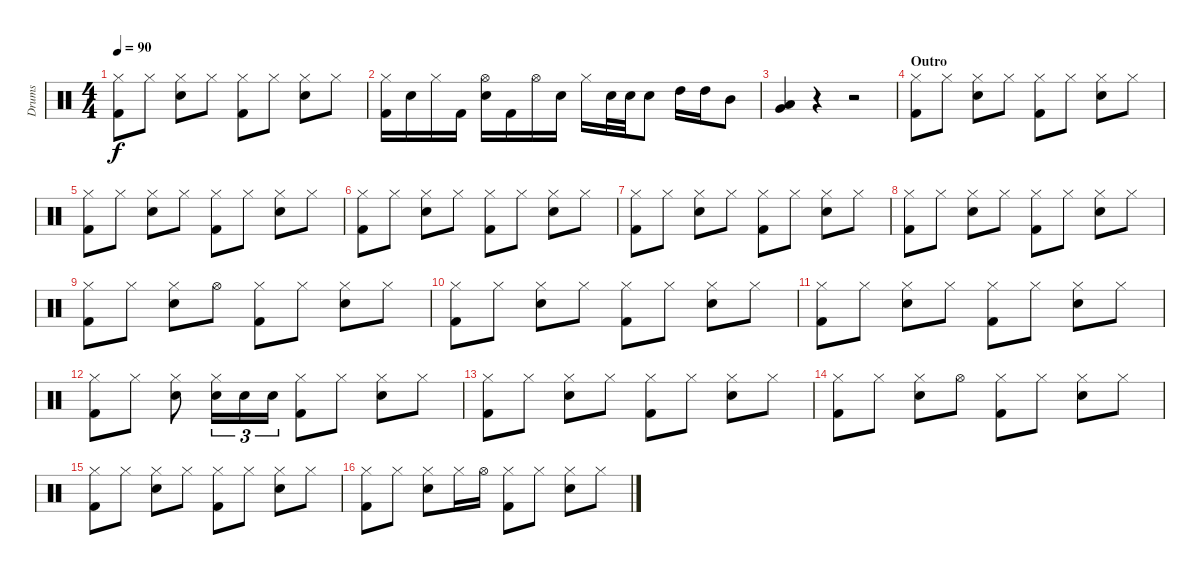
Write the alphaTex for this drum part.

\track ("Drums" "Drums") {instrument percussion}
\staff {score}
\articulation defaults
\ts (4 4)
\tempo 90
\clef neutral
\ks c
("Hi-Hat (closed)" "Kick (hit) 2").8{dy f} "Hi-Hat (closed)".8 ("Hi-Hat (closed)" "Electric Snare (hit)").8 "Hi-Hat (closed)".8 ("Hi-Hat (closed)" "Kick (hit) 2").8 "Hi-Hat (closed)".8 ("Hi-Hat (closed)" "Electric Snare (hit)").8 "Hi-Hat (closed)".8 |
("Hi-Hat (closed)" "Kick (hit) 2").16 "Electric Snare (hit)".16 "Hi-Hat (closed)".16 "Kick (hit) 2".16 ("Hi-Hat (open)" "Electric Snare (hit)").16 "Kick (hit) 2".16 "Hi-Hat (open)".16 "Electric Snare (hit)".16 "Hi-Hat (closed)".16 "Electric Snare (hit)".32 "Electric Snare (hit)".32 "Electric Snare (hit)".8 "High Tom (hit)".16 "High Tom (hit)".16 "Mid Tom (hit)".8 |
("Low Tom (hit)" "Very Low Tom (hit)").4 r.4 r.2 |
\section ("" "Outro")
("Hi-Hat (closed)" "Kick (hit) 2").8 "Hi-Hat (closed)".8 ("Hi-Hat (closed)" "Electric Snare (hit)").8 "Hi-Hat (closed)".8 ("Hi-Hat (closed)" "Kick (hit) 2").8 "Hi-Hat (closed)".8 ("Hi-Hat (closed)" "Electric Snare (hit)").8 "Hi-Hat (closed)".8 |
("Hi-Hat (closed)" "Kick (hit) 2").8 "Hi-Hat (closed)".8 ("Hi-Hat (closed)" "Electric Snare (hit)").8 "Hi-Hat (closed)".8 ("Hi-Hat (closed)" "Kick (hit) 2").8 "Hi-Hat (closed)".8 ("Hi-Hat (closed)" "Electric Snare (hit)").8 "Hi-Hat (closed)".8 |
("Hi-Hat (closed)" "Kick (hit) 2").8 "Hi-Hat (closed)".8 ("Hi-Hat (closed)" "Electric Snare (hit)").8 "Hi-Hat (closed)".8 ("Hi-Hat (closed)" "Kick (hit) 2").8 "Hi-Hat (closed)".8 ("Hi-Hat (closed)" "Electric Snare (hit)").8 "Hi-Hat (closed)".8 |
("Hi-Hat (closed)" "Kick (hit) 2").8 "Hi-Hat (closed)".8 ("Hi-Hat (closed)" "Electric Snare (hit)").8 "Hi-Hat (closed)".8 ("Hi-Hat (closed)" "Kick (hit) 2").8 "Hi-Hat (closed)".8 ("Hi-Hat (closed)" "Electric Snare (hit)").8 "Hi-Hat (closed)".8 |
("Hi-Hat (closed)" "Kick (hit) 2").8 "Hi-Hat (closed)".8 ("Hi-Hat (closed)" "Electric Snare (hit)").8 "Hi-Hat (closed)".8 ("Hi-Hat (closed)" "Kick (hit) 2").8 "Hi-Hat (closed)".8 ("Hi-Hat (closed)" "Electric Snare (hit)").8 "Hi-Hat (closed)".8 |
("Hi-Hat (closed)" "Kick (hit) 2").8 "Hi-Hat (closed)".8 ("Hi-Hat (closed)" "Electric Snare (hit)").8 "Hi-Hat (open)".8 ("Hi-Hat (closed)" "Kick (hit) 2").8 "Hi-Hat (closed)".8 ("Hi-Hat (closed)" "Electric Snare (hit)").8 "Hi-Hat (closed)".8 |
("Hi-Hat (closed)" "Kick (hit) 2").8 "Hi-Hat (closed)".8 ("Hi-Hat (closed)" "Electric Snare (hit)").8 "Hi-Hat (closed)".8 ("Hi-Hat (closed)" "Kick (hit) 2").8 "Hi-Hat (closed)".8 ("Hi-Hat (closed)" "Electric Snare (hit)").8 "Hi-Hat (closed)".8 |
("Hi-Hat (closed)" "Kick (hit) 2").8 "Hi-Hat (closed)".8 ("Hi-Hat (closed)" "Electric Snare (hit)").8 "Hi-Hat (closed)".8 ("Hi-Hat (closed)" "Kick (hit) 2").8 "Hi-Hat (closed)".8 ("Hi-Hat (closed)" "Electric Snare (hit)").8 "Hi-Hat (closed)".8 |
("Hi-Hat (closed)" "Kick (hit) 2").8 "Hi-Hat (closed)".8 ("Hi-Hat (closed)" "Electric Snare (hit)").8 ("Hi-Hat (closed)" "Electric Snare (hit)").16{tu (3 2)} "Electric Snare (hit)".16{tu (3 2)} "Electric Snare (hit)".16{tu (3 2)} ("Hi-Hat (closed)" "Kick (hit) 2").8 "Hi-Hat (closed)".8 ("Hi-Hat (closed)" "Electric Snare (hit)").8 "Hi-Hat (closed)".8 |
("Hi-Hat (closed)" "Kick (hit) 2").8 "Hi-Hat (closed)".8 ("Hi-Hat (closed)" "Electric Snare (hit)").8 "Hi-Hat (closed)".8 ("Hi-Hat (closed)" "Kick (hit) 2").8 "Hi-Hat (closed)".8 ("Hi-Hat (closed)" "Electric Snare (hit)").8 "Hi-Hat (closed)".8 |
("Hi-Hat (closed)" "Kick (hit) 2").8 "Hi-Hat (closed)".8 ("Hi-Hat (closed)" "Electric Snare (hit)").8 "Hi-Hat (open)".8 ("Hi-Hat (closed)" "Kick (hit) 2").8 "Hi-Hat (closed)".8 ("Hi-Hat (closed)" "Electric Snare (hit)").8 "Hi-Hat (closed)".8 |
("Hi-Hat (closed)" "Kick (hit) 2").8 "Hi-Hat (closed)".8 ("Hi-Hat (closed)" "Electric Snare (hit)").8 "Hi-Hat (closed)".8 ("Hi-Hat (closed)" "Kick (hit) 2").8 "Hi-Hat (closed)".8 ("Hi-Hat (closed)" "Electric Snare (hit)").8 "Hi-Hat (closed)".8 |
("Hi-Hat (closed)" "Kick (hit) 2").8 "Hi-Hat (closed)".8 ("Hi-Hat (closed)" "Electric Snare (hit)").8 "Hi-Hat (closed)".16 "Hi-Hat (open)".16 ("Hi-Hat (closed)" "Kick (hit) 2").8 "Hi-Hat (closed)".8 ("Hi-Hat (closed)" "Electric Snare (hit)").8 "Hi-Hat (closed)".8
